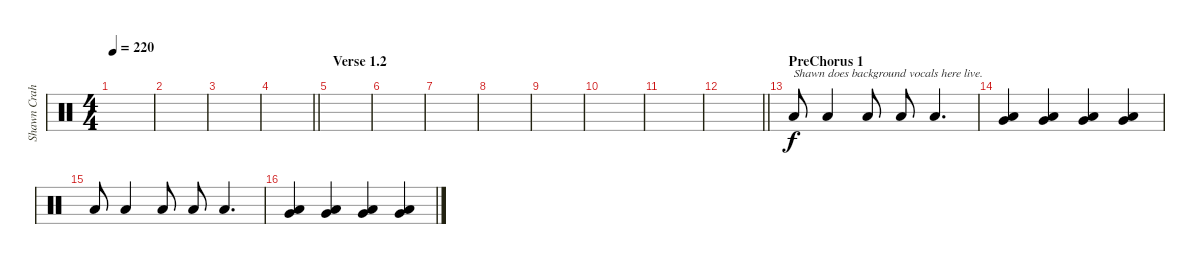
\track ("Shawn Crahan" "Shawn Crah") {instrument percussion}
\staff {score}
\articulation defaults
\ts (4 4)
\tempo 220
\clef neutral
\ks c
|
|
|
\barLineRight lightlight
|
\section ("" "Verse 1.2")
|
|
|
|
|
|
|
\barLineRight lightlight
|
\section ("" "PreChorus 1")
"Low Floor Tom (hit)".8{txt "Shawn does background vocals here live."} "Low Floor Tom (hit)".4 "Low Floor Tom (hit)".8 "Low Floor Tom (hit)".8 "Low Floor Tom (hit)".4{d} |
("Very Low Tom (hit)" "Low Floor Tom (hit)").4 ("Very Low Tom (hit)" "Low Floor Tom (hit)").4 ("Very Low Tom (hit)" "Low Floor Tom (hit)").4 ("Very Low Tom (hit)" "Low Floor Tom (hit)").4 |
"Low Floor Tom (hit)".8 "Low Floor Tom (hit)".4 "Low Floor Tom (hit)".8 "Low Floor Tom (hit)".8 "Low Floor Tom (hit)".4{d} |
("Very Low Tom (hit)" "Low Floor Tom (hit)").4 ("Very Low Tom (hit)" "Low Floor Tom (hit)").4 ("Very Low Tom (hit)" "Low Floor Tom (hit)").4 ("Very Low Tom (hit)" "Low Floor Tom (hit)").4
